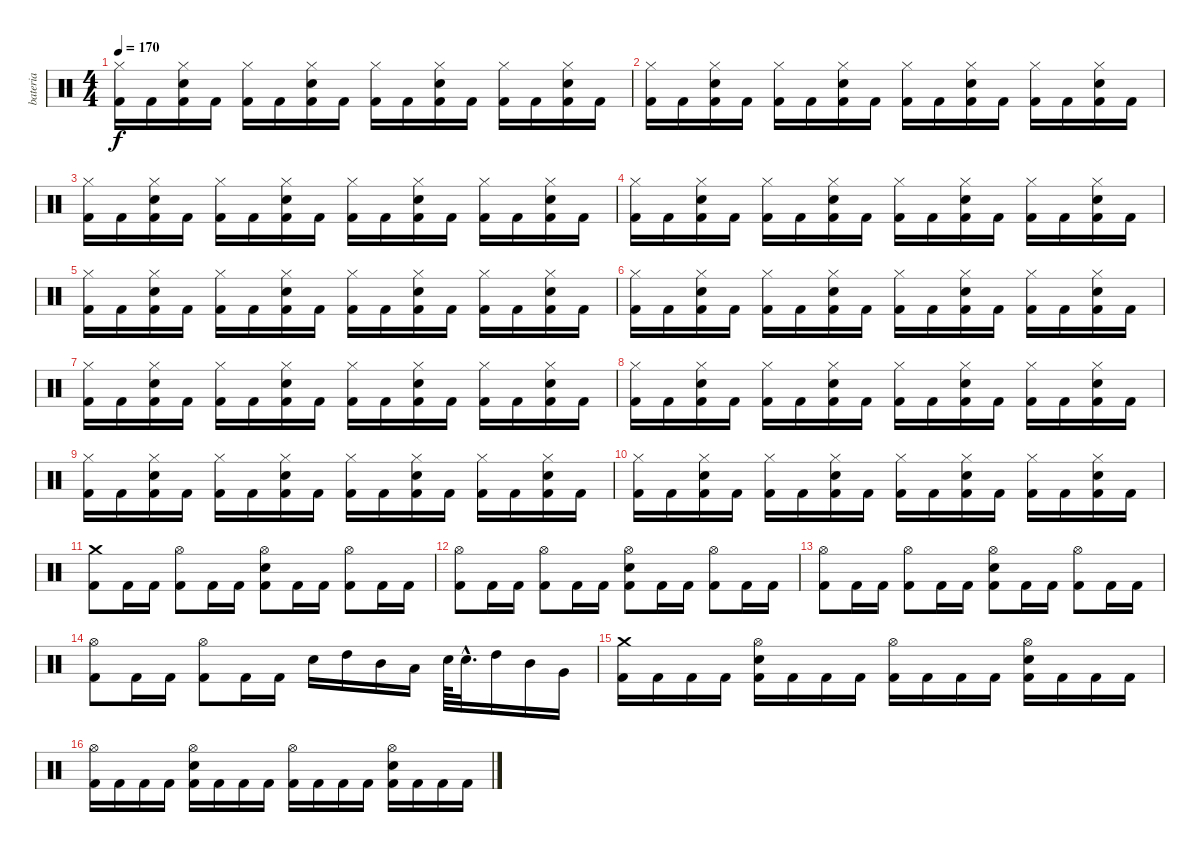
\track ("bateria" "bateria") {instrument percussion}
\staff {score}
\articulation defaults
\ts (4 4)
\tempo 170
\clef neutral
\ks c
("Hi-Hat (closed)" "Kick (hit) 2").16{dy f} "Kick (hit) 2".16 ("Hi-Hat (closed)" "Snare (hit) 2" "Kick (hit) 2").16 "Kick (hit) 2".16 ("Hi-Hat (closed)" "Kick (hit) 2").16 "Kick (hit) 2".16 ("Hi-Hat (closed)" "Snare (hit) 2" "Kick (hit) 2").16 "Kick (hit) 2".16 ("Hi-Hat (closed)" "Kick (hit) 2").16 "Kick (hit) 2".16 ("Hi-Hat (closed)" "Snare (hit) 2" "Kick (hit) 2").16 "Kick (hit) 2".16 ("Hi-Hat (closed)" "Kick (hit) 2").16 "Kick (hit) 2".16 ("Hi-Hat (closed)" "Snare (hit) 2" "Kick (hit) 2").16 "Kick (hit) 2".16 |
("Hi-Hat (closed)" "Kick (hit) 2").16 "Kick (hit) 2".16 ("Hi-Hat (closed)" "Snare (hit) 2" "Kick (hit) 2").16 "Kick (hit) 2".16 ("Hi-Hat (closed)" "Kick (hit) 2").16 "Kick (hit) 2".16 ("Hi-Hat (closed)" "Snare (hit) 2" "Kick (hit) 2").16 "Kick (hit) 2".16 ("Hi-Hat (closed)" "Kick (hit) 2").16 "Kick (hit) 2".16 ("Hi-Hat (closed)" "Snare (hit) 2" "Kick (hit) 2").16 "Kick (hit) 2".16 ("Hi-Hat (closed)" "Kick (hit) 2").16 "Kick (hit) 2".16 ("Hi-Hat (closed)" "Snare (hit) 2" "Kick (hit) 2").16 "Kick (hit) 2".16 |
("Hi-Hat (closed)" "Kick (hit) 2").16 "Kick (hit) 2".16 ("Hi-Hat (closed)" "Snare (hit) 2" "Kick (hit) 2").16 "Kick (hit) 2".16 ("Hi-Hat (closed)" "Kick (hit) 2").16 "Kick (hit) 2".16 ("Hi-Hat (closed)" "Snare (hit) 2" "Kick (hit) 2").16 "Kick (hit) 2".16 ("Hi-Hat (closed)" "Kick (hit) 2").16 "Kick (hit) 2".16 ("Hi-Hat (closed)" "Snare (hit) 2" "Kick (hit) 2").16 "Kick (hit) 2".16 ("Hi-Hat (closed)" "Kick (hit) 2").16 "Kick (hit) 2".16 ("Hi-Hat (closed)" "Snare (hit) 2" "Kick (hit) 2").16 "Kick (hit) 2".16 |
("Hi-Hat (closed)" "Kick (hit) 2").16 "Kick (hit) 2".16 ("Hi-Hat (closed)" "Snare (hit) 2" "Kick (hit) 2").16 "Kick (hit) 2".16 ("Hi-Hat (closed)" "Kick (hit) 2").16 "Kick (hit) 2".16 ("Hi-Hat (closed)" "Snare (hit) 2" "Kick (hit) 2").16 "Kick (hit) 2".16 ("Hi-Hat (closed)" "Kick (hit) 2").16 "Kick (hit) 2".16 ("Hi-Hat (closed)" "Snare (hit) 2" "Kick (hit) 2").16 "Kick (hit) 2".16 ("Hi-Hat (closed)" "Kick (hit) 2").16 "Kick (hit) 2".16 ("Hi-Hat (closed)" "Snare (hit) 2" "Kick (hit) 2").16 "Kick (hit) 2".16 |
("Hi-Hat (closed)" "Kick (hit) 2").16 "Kick (hit) 2".16 ("Hi-Hat (closed)" "Snare (hit) 2" "Kick (hit) 2").16 "Kick (hit) 2".16 ("Hi-Hat (closed)" "Kick (hit) 2").16 "Kick (hit) 2".16 ("Hi-Hat (closed)" "Snare (hit) 2" "Kick (hit) 2").16 "Kick (hit) 2".16 ("Hi-Hat (closed)" "Kick (hit) 2").16 "Kick (hit) 2".16 ("Hi-Hat (closed)" "Snare (hit) 2" "Kick (hit) 2").16 "Kick (hit) 2".16 ("Hi-Hat (closed)" "Kick (hit) 2").16 "Kick (hit) 2".16 ("Hi-Hat (closed)" "Snare (hit) 2" "Kick (hit) 2").16 "Kick (hit) 2".16 |
("Hi-Hat (closed)" "Kick (hit) 2").16 "Kick (hit) 2".16 ("Hi-Hat (closed)" "Snare (hit) 2" "Kick (hit) 2").16 "Kick (hit) 2".16 ("Hi-Hat (closed)" "Kick (hit) 2").16 "Kick (hit) 2".16 ("Hi-Hat (closed)" "Snare (hit) 2" "Kick (hit) 2").16 "Kick (hit) 2".16 ("Hi-Hat (closed)" "Kick (hit) 2").16 "Kick (hit) 2".16 ("Hi-Hat (closed)" "Snare (hit) 2" "Kick (hit) 2").16 "Kick (hit) 2".16 ("Hi-Hat (closed)" "Kick (hit) 2").16 "Kick (hit) 2".16 ("Hi-Hat (closed)" "Snare (hit) 2" "Kick (hit) 2").16 "Kick (hit) 2".16 |
("Hi-Hat (closed)" "Kick (hit) 2").16 "Kick (hit) 2".16 ("Hi-Hat (closed)" "Snare (hit) 2" "Kick (hit) 2").16 "Kick (hit) 2".16 ("Hi-Hat (closed)" "Kick (hit) 2").16 "Kick (hit) 2".16 ("Hi-Hat (closed)" "Snare (hit) 2" "Kick (hit) 2").16 "Kick (hit) 2".16 ("Hi-Hat (closed)" "Kick (hit) 2").16 "Kick (hit) 2".16 ("Hi-Hat (closed)" "Snare (hit) 2" "Kick (hit) 2").16 "Kick (hit) 2".16 ("Hi-Hat (closed)" "Kick (hit) 2").16 "Kick (hit) 2".16 ("Hi-Hat (closed)" "Snare (hit) 2" "Kick (hit) 2").16 "Kick (hit) 2".16 |
("Hi-Hat (closed)" "Kick (hit) 2").16 "Kick (hit) 2".16 ("Hi-Hat (closed)" "Snare (hit) 2" "Kick (hit) 2").16 "Kick (hit) 2".16 ("Hi-Hat (closed)" "Kick (hit) 2").16 "Kick (hit) 2".16 ("Hi-Hat (closed)" "Snare (hit) 2" "Kick (hit) 2").16 "Kick (hit) 2".16 ("Hi-Hat (closed)" "Kick (hit) 2").16 "Kick (hit) 2".16 ("Hi-Hat (closed)" "Snare (hit) 2" "Kick (hit) 2").16 "Kick (hit) 2".16 ("Hi-Hat (closed)" "Kick (hit) 2").16 "Kick (hit) 2".16 ("Hi-Hat (closed)" "Snare (hit) 2" "Kick (hit) 2").16 "Kick (hit) 2".16 |
("Hi-Hat (closed)" "Kick (hit) 2").16 "Kick (hit) 2".16 ("Hi-Hat (closed)" "Snare (hit) 2" "Kick (hit) 2").16 "Kick (hit) 2".16 ("Hi-Hat (closed)" "Kick (hit) 2").16 "Kick (hit) 2".16 ("Hi-Hat (closed)" "Snare (hit) 2" "Kick (hit) 2").16 "Kick (hit) 2".16 ("Hi-Hat (closed)" "Kick (hit) 2").16 "Kick (hit) 2".16 ("Hi-Hat (closed)" "Snare (hit) 2" "Kick (hit) 2").16 "Kick (hit) 2".16 ("Hi-Hat (closed)" "Kick (hit) 2").16 "Kick (hit) 2".16 ("Hi-Hat (closed)" "Snare (hit) 2" "Kick (hit) 2").16 "Kick (hit) 2".16 |
("Hi-Hat (closed)" "Kick (hit) 2").16 "Kick (hit) 2".16 ("Hi-Hat (closed)" "Snare (hit) 2" "Kick (hit) 2").16 "Kick (hit) 2".16 ("Hi-Hat (closed)" "Kick (hit) 2").16 "Kick (hit) 2".16 ("Hi-Hat (closed)" "Snare (hit) 2" "Kick (hit) 2").16 "Kick (hit) 2".16 ("Hi-Hat (closed)" "Kick (hit) 2").16 "Kick (hit) 2".16 ("Hi-Hat (closed)" "Snare (hit) 2" "Kick (hit) 2").16 "Kick (hit) 2".16 ("Hi-Hat (closed)" "Kick (hit) 2").16 "Kick (hit) 2".16 ("Hi-Hat (closed)" "Snare (hit) 2" "Kick (hit) 2").16 "Kick (hit) 2".16 |
("Crash medium (hit)" "Kick (hit) 2").8 "Kick (hit) 2".16 "Kick (hit) 2".16 ("Hi-Hat (open)" "Kick (hit) 2").8 "Kick (hit) 2".16 "Kick (hit) 2".16 ("Hi-Hat (open)" "Snare (hit) 2" "Kick (hit) 2").8 "Kick (hit) 2".16 "Kick (hit) 2".16 ("Hi-Hat (open)" "Kick (hit) 2").8 "Kick (hit) 2".16 "Kick (hit) 2".16 |
("Hi-Hat (open)" "Kick (hit) 2").8 "Kick (hit) 2".16 "Kick (hit) 2".16 ("Hi-Hat (open)" "Kick (hit) 2").8 "Kick (hit) 2".16 "Kick (hit) 2".16 ("Hi-Hat (open)" "Snare (hit) 2" "Kick (hit) 2").8 "Kick (hit) 2".16 "Kick (hit) 2".16 ("Hi-Hat (open)" "Kick (hit) 2").8 "Kick (hit) 2".16 "Kick (hit) 2".16 |
("Hi-Hat (open)" "Kick (hit) 2").8 "Kick (hit) 2".16 "Kick (hit) 2".16 ("Hi-Hat (open)" "Kick (hit) 2").8 "Kick (hit) 2".16 "Kick (hit) 2".16 ("Hi-Hat (open)" "Snare (hit) 2" "Kick (hit) 2").8 "Kick (hit) 2".16 "Kick (hit) 2".16 ("Hi-Hat (open)" "Kick (hit) 2").8 "Kick (hit) 2".16 "Kick (hit) 2".16 |
("Hi-Hat (open)" "Kick (hit) 2").8 "Kick (hit) 2".16 "Kick (hit) 2".16 ("Hi-Hat (open)" "Kick (hit) 2").8 "Kick (hit) 2".16 "Kick (hit) 2".16 "Snare (hit) 2".16 "High Tom (hit)".16 "Mid Tom (hit)".16 "Low Tom (hit)".16 "Snare (hit) 2".64 "Snare (hit) 2"{hac}.32{d} "High Tom (hit)".16 "Mid Tom (hit)".16 "Very Low Tom (hit)".16 |
("Crash medium (hit)" "Kick (hit) 2").16 "Kick (hit) 2".16 "Kick (hit) 2".16 "Kick (hit) 2".16 ("Hi-Hat (open)" "Snare (hit) 2" "Kick (hit) 2").16 "Kick (hit) 2".16 "Kick (hit) 2".16 "Kick (hit) 2".16 ("Hi-Hat (open)" "Kick (hit) 2").16 "Kick (hit) 2".16 "Kick (hit) 2".16 "Kick (hit) 2".16 ("Hi-Hat (open)" "Snare (hit) 2" "Kick (hit) 2").16 "Kick (hit) 2".16 "Kick (hit) 2".16 "Kick (hit) 2".16 |
("Hi-Hat (open)" "Kick (hit) 2").16 "Kick (hit) 2".16 "Kick (hit) 2".16 "Kick (hit) 2".16 ("Hi-Hat (open)" "Snare (hit) 2" "Kick (hit) 2").16 "Kick (hit) 2".16 "Kick (hit) 2".16 "Kick (hit) 2".16 ("Hi-Hat (open)" "Kick (hit) 2").16 "Kick (hit) 2".16 "Kick (hit) 2".16 "Kick (hit) 2".16 ("Hi-Hat (open)" "Snare (hit) 2" "Kick (hit) 2").16 "Kick (hit) 2".16 "Kick (hit) 2".16 "Kick (hit) 2".16
